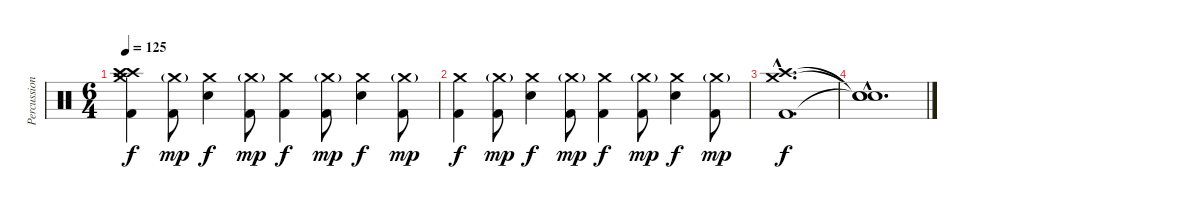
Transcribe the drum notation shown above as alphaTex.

\track ("Percussion" "Percussion") {instrument percussion}
\staff {score}
\articulation defaults
\ts (6 4)
\tempo 125
\clef neutral
\ks c
("Crash high (hit)" "Crash high (hit)" "Crash medium (hit)" "Kick (hit) 2").4{dy f} ("Crash medium (hit)"{g} "Kick (hit) 2").8{dy mp} ("Crash medium (hit)" "Electric Snare (hit)").4{dy f} ("Crash medium (hit)"{g} "Kick (hit) 2").8{dy mp} ("Crash medium (hit)" "Kick (hit) 2").4{dy f} ("Crash medium (hit)"{g} "Kick (hit) 2").8{dy mp} ("Crash medium (hit)" "Electric Snare (hit)").4{dy f} ("Crash medium (hit)"{g} "Kick (hit) 2").8{dy mp} |
("Crash medium (hit)" "Kick (hit) 2").4{dy f} ("Crash medium (hit)"{g} "Kick (hit) 2").8{dy mp} ("Crash medium (hit)" "Electric Snare (hit)").4{dy f} ("Crash medium (hit)"{g} "Kick (hit) 2").8{dy mp} ("Crash medium (hit)" "Kick (hit) 2").4{dy f} ("Crash medium (hit)"{g} "Kick (hit) 2").8{dy mp} ("Crash medium (hit)" "Electric Snare (hit)").4{dy f} ("Crash medium (hit)"{g} "Kick (hit) 2").8{dy mp} |
("Crash medium (hit)"{hac} "Crash high (hit)"{hac} "Kick (hit) 2"{hac}).1{d dy f volume 0} |
("Snare (hit)"{hac t} "Snare (hit)"{hac t} "Snare (hit)"{hac t}).1{d}
